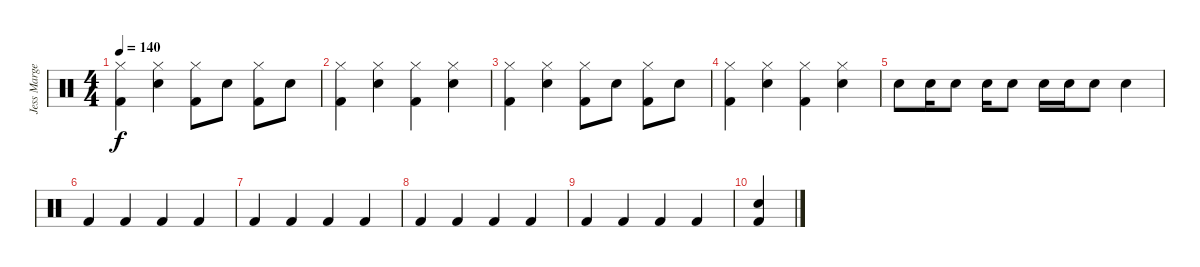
\track ("Jess Margera" "Jess Marge") {instrument percussion}
\staff {score}
\articulation defaults
\ts (4 4)
\tempo 140
\clef neutral
\ks c
("Hi-Hat (closed)" "Kick (hit) 2").4{dy f} ("Hi-Hat (closed)" "Electric Snare (hit)").4 ("Hi-Hat (closed)" "Kick (hit) 2").8 "Electric Snare (hit)".8 ("Hi-Hat (closed)" "Kick (hit) 2").8 "Electric Snare (hit)".8 |
("Hi-Hat (closed)" "Kick (hit) 2").4 ("Hi-Hat (closed)" "Electric Snare (hit)").4 ("Hi-Hat (closed)" "Kick (hit) 2").4 ("Hi-Hat (closed)" "Electric Snare (hit)").4 |
("Hi-Hat (closed)" "Kick (hit) 2").4 ("Hi-Hat (closed)" "Electric Snare (hit)").4 ("Hi-Hat (closed)" "Kick (hit) 2").8 "Electric Snare (hit)".8 ("Hi-Hat (closed)" "Kick (hit) 2").8 "Electric Snare (hit)".8 |
("Hi-Hat (closed)" "Kick (hit) 2").4 ("Hi-Hat (closed)" "Electric Snare (hit)").4 ("Hi-Hat (closed)" "Kick (hit) 2").4 ("Hi-Hat (closed)" "Electric Snare (hit)").4 |
"Electric Snare (hit)".8 "Electric Snare (hit)".16 "Electric Snare (hit)".8 "Electric Snare (hit)".16 "Electric Snare (hit)".8 "Electric Snare (hit)".16 "Electric Snare (hit)".16 "Electric Snare (hit)".8 "Electric Snare (hit)".4 |
"Kick (hit) 2".4 "Kick (hit) 2".4 "Kick (hit) 2".4 "Kick (hit) 2".4 |
"Kick (hit) 2".4 "Kick (hit) 2".4 "Kick (hit) 2".4 "Kick (hit) 2".4 |
"Kick (hit) 2".4 "Kick (hit) 2".4 "Kick (hit) 2".4 "Kick (hit) 2".4 |
"Kick (hit) 2".4 "Kick (hit) 2".4 "Kick (hit) 2".4 "Kick (hit) 2".4 |
("Electric Snare (hit)" "Kick (hit) 2").4
